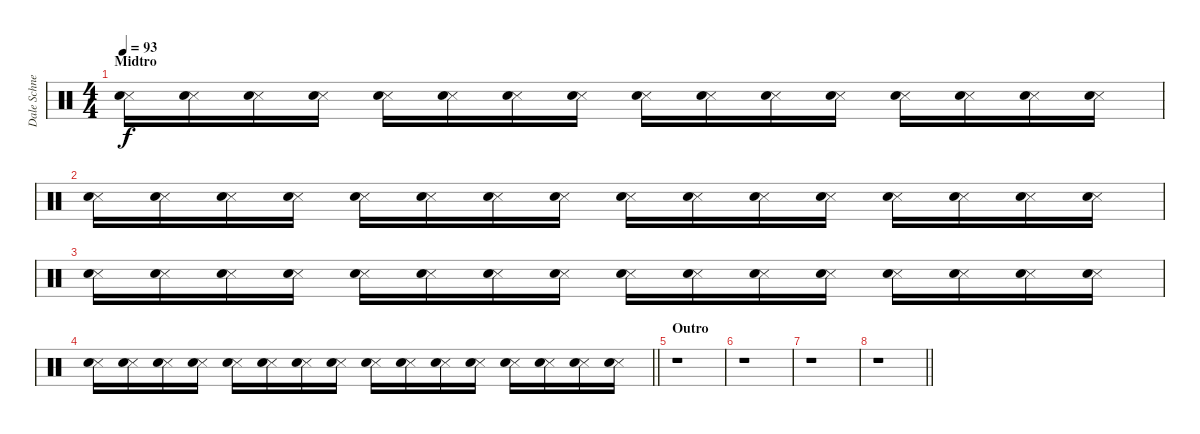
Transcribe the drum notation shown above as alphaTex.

\track ("Dale Schnettler (Drums)" "Dale Schne") {instrument percussion}
\staff {score}
\articulation defaults
\ts (4 4)
\section ("" "Midtro")
\tempo 93
\clef neutral
\ks c
("Metronome (hit)" "Hand Clap (hit)").16{dy f} ("Metronome (hit)" "Hand Clap (hit)").16 ("Metronome (hit)" "Hand Clap (hit)").16 ("Metronome (hit)" "Hand Clap (hit)").16 ("Metronome (hit)" "Hand Clap (hit)").16 ("Metronome (hit)" "Hand Clap (hit)").16 ("Metronome (hit)" "Hand Clap (hit)").16 ("Metronome (hit)" "Hand Clap (hit)").16 ("Metronome (hit)" "Hand Clap (hit)").16 ("Metronome (hit)" "Hand Clap (hit)").16 ("Metronome (hit)" "Hand Clap (hit)").16 ("Metronome (hit)" "Hand Clap (hit)").16 ("Metronome (hit)" "Hand Clap (hit)").16 ("Metronome (hit)" "Hand Clap (hit)").16 ("Metronome (hit)" "Hand Clap (hit)").16 ("Metronome (hit)" "Hand Clap (hit)").16 |
("Metronome (hit)" "Hand Clap (hit)").16 ("Metronome (hit)" "Hand Clap (hit)").16 ("Metronome (hit)" "Hand Clap (hit)").16 ("Metronome (hit)" "Hand Clap (hit)").16 ("Metronome (hit)" "Hand Clap (hit)").16 ("Metronome (hit)" "Hand Clap (hit)").16 ("Metronome (hit)" "Hand Clap (hit)").16 ("Metronome (hit)" "Hand Clap (hit)").16 ("Metronome (hit)" "Hand Clap (hit)").16 ("Metronome (hit)" "Hand Clap (hit)").16 ("Metronome (hit)" "Hand Clap (hit)").16 ("Metronome (hit)" "Hand Clap (hit)").16 ("Metronome (hit)" "Hand Clap (hit)").16 ("Metronome (hit)" "Hand Clap (hit)").16 ("Metronome (hit)" "Hand Clap (hit)").16 ("Metronome (hit)" "Hand Clap (hit)").16 |
("Metronome (hit)" "Hand Clap (hit)").16 ("Metronome (hit)" "Hand Clap (hit)").16 ("Metronome (hit)" "Hand Clap (hit)").16 ("Metronome (hit)" "Hand Clap (hit)").16 ("Metronome (hit)" "Hand Clap (hit)").16 ("Metronome (hit)" "Hand Clap (hit)").16 ("Metronome (hit)" "Hand Clap (hit)").16 ("Metronome (hit)" "Hand Clap (hit)").16 ("Metronome (hit)" "Hand Clap (hit)").16 ("Metronome (hit)" "Hand Clap (hit)").16 ("Metronome (hit)" "Hand Clap (hit)").16 ("Metronome (hit)" "Hand Clap (hit)").16 ("Metronome (hit)" "Hand Clap (hit)").16 ("Metronome (hit)" "Hand Clap (hit)").16 ("Metronome (hit)" "Hand Clap (hit)").16 ("Metronome (hit)" "Hand Clap (hit)").16 |
\barLineRight lightlight
("Metronome (hit)" "Hand Clap (hit)").16 ("Metronome (hit)" "Hand Clap (hit)").16 ("Metronome (hit)" "Hand Clap (hit)").16 ("Metronome (hit)" "Hand Clap (hit)").16 ("Metronome (hit)" "Hand Clap (hit)").16 ("Metronome (hit)" "Hand Clap (hit)").16 ("Metronome (hit)" "Hand Clap (hit)").16 ("Metronome (hit)" "Hand Clap (hit)").16 ("Metronome (hit)" "Hand Clap (hit)").16 ("Metronome (hit)" "Hand Clap (hit)").16 ("Metronome (hit)" "Hand Clap (hit)").16 ("Metronome (hit)" "Hand Clap (hit)").16 ("Metronome (hit)" "Hand Clap (hit)").16 ("Metronome (hit)" "Hand Clap (hit)").16 ("Metronome (hit)" "Hand Clap (hit)").16 ("Metronome (hit)" "Hand Clap (hit)").16 |
\section ("" "Outro")
r.1 |
r.1 |
r.1 |
\barLineRight lightlight
r.1
